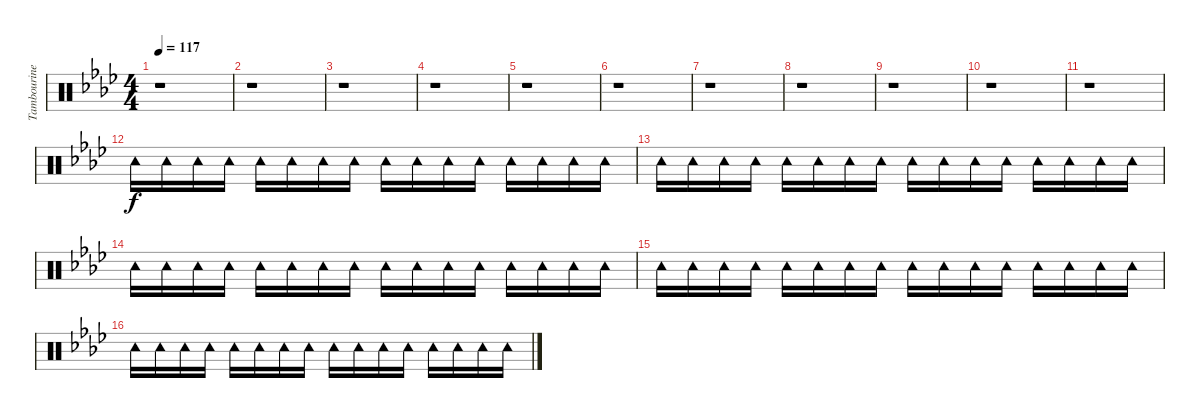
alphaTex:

\track ("Tambourine" "Tambourine") {instrument percussion}
\staff {score}
\articulation defaults
\ts (4 4)
\tempo 117
\clef neutral
\ks ab
r.1{dy f} |
r.1 |
r.1 |
r.1 |
r.1 |
r.1 |
r.1 |
r.1 |
r.1 |
r.1 |
r.1 |
"Tambourine (hit)".16 "Tambourine (hit)".16 "Tambourine (hit)".16 "Tambourine (hit)".16 "Tambourine (hit)".16 "Tambourine (hit)".16 "Tambourine (hit)".16 "Tambourine (hit)".16 "Tambourine (hit)".16 "Tambourine (hit)".16 "Tambourine (hit)".16 "Tambourine (hit)".16 "Tambourine (hit)".16 "Tambourine (hit)".16 "Tambourine (hit)".16 "Tambourine (hit)".16 |
"Tambourine (hit)".16 "Tambourine (hit)".16 "Tambourine (hit)".16 "Tambourine (hit)".16 "Tambourine (hit)".16 "Tambourine (hit)".16 "Tambourine (hit)".16 "Tambourine (hit)".16 "Tambourine (hit)".16 "Tambourine (hit)".16 "Tambourine (hit)".16 "Tambourine (hit)".16 "Tambourine (hit)".16 "Tambourine (hit)".16 "Tambourine (hit)".16 "Tambourine (hit)".16 |
"Tambourine (hit)".16 "Tambourine (hit)".16 "Tambourine (hit)".16 "Tambourine (hit)".16 "Tambourine (hit)".16 "Tambourine (hit)".16 "Tambourine (hit)".16 "Tambourine (hit)".16 "Tambourine (hit)".16 "Tambourine (hit)".16 "Tambourine (hit)".16 "Tambourine (hit)".16 "Tambourine (hit)".16 "Tambourine (hit)".16 "Tambourine (hit)".16 "Tambourine (hit)".16 |
"Tambourine (hit)".16 "Tambourine (hit)".16 "Tambourine (hit)".16 "Tambourine (hit)".16 "Tambourine (hit)".16 "Tambourine (hit)".16 "Tambourine (hit)".16 "Tambourine (hit)".16 "Tambourine (hit)".16 "Tambourine (hit)".16 "Tambourine (hit)".16 "Tambourine (hit)".16 "Tambourine (hit)".16 "Tambourine (hit)".16 "Tambourine (hit)".16 "Tambourine (hit)".16 |
"Tambourine (hit)".16 "Tambourine (hit)".16 "Tambourine (hit)".16 "Tambourine (hit)".16 "Tambourine (hit)".16 "Tambourine (hit)".16 "Tambourine (hit)".16 "Tambourine (hit)".16 "Tambourine (hit)".16 "Tambourine (hit)".16 "Tambourine (hit)".16 "Tambourine (hit)".16 "Tambourine (hit)".16 "Tambourine (hit)".16 "Tambourine (hit)".16 "Tambourine (hit)".16
